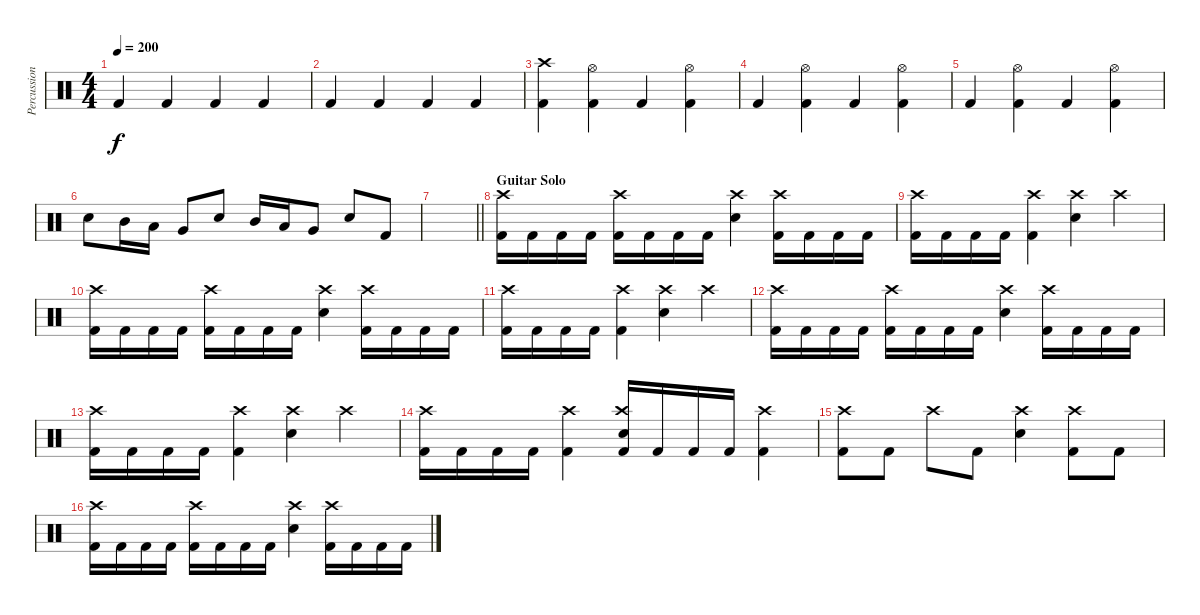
\track ("Percussion" "Percussion") {instrument percussion}
\staff {score}
\articulation defaults
\ts (4 4)
\tempo 200
\clef neutral
\ks c "Kick (hit) 2".4{dy f} "Kick (hit) 2".4 "Kick (hit) 2".4 "Kick (hit) 2".4
|
"Kick (hit) 2".4 "Kick (hit) 2".4 "Kick (hit) 2".4 "Kick (hit) 2".4 |
("Crash high (hit)" "Kick (hit) 2").4 ("Hi-Hat (open)" "Kick (hit) 2").4 "Kick (hit) 2".4 ("Hi-Hat (open)" "Kick (hit) 2").4 |
"Kick (hit) 2".4 ("Hi-Hat (open)" "Kick (hit) 2").4 "Kick (hit) 2".4 ("Hi-Hat (open)" "Kick (hit) 2").4 |
"Kick (hit) 2".4 ("Hi-Hat (open)" "Kick (hit) 2").4 "Kick (hit) 2".4 ("Hi-Hat (open)" "Kick (hit) 2").4 |
"Electric Snare (hit)".8 "Mid Tom (hit)".16 "Low Tom (hit)".16 "Very Low Tom (hit)".8 "Electric Snare (hit)".8 "Mid Tom (hit)".16 "Low Tom (hit)".16 "Very Low Tom (hit)".8 "Electric Snare (hit)".8 "Kick (hit) 2".8 |
\barLineRight lightlight
|
\section ("" "Guitar Solo")
("Crash high (hit)" "Kick (hit) 2").16 "Kick (hit) 2".16 "Kick (hit) 2".16 "Kick (hit) 2".16 ("Crash high (hit)" "Kick (hit) 2").16 "Kick (hit) 2".16 "Kick (hit) 2".16 "Kick (hit) 2".16 ("Crash high (hit)" "Electric Snare (hit)").4 ("Crash high (hit)" "Kick (hit) 2").16 "Kick (hit) 2".16 "Kick (hit) 2".16 "Kick (hit) 2".16 |
("Crash high (hit)" "Kick (hit) 2").16 "Kick (hit) 2".16 "Kick (hit) 2".16 "Kick (hit) 2".16 ("Crash high (hit)" "Kick (hit) 2").4 ("Crash high (hit)" "Electric Snare (hit)").4 "Crash high (hit)".4 |
("Crash high (hit)" "Kick (hit) 2").16 "Kick (hit) 2".16 "Kick (hit) 2".16 "Kick (hit) 2".16 ("Crash high (hit)" "Kick (hit) 2").16 "Kick (hit) 2".16 "Kick (hit) 2".16 "Kick (hit) 2".16 ("Crash high (hit)" "Electric Snare (hit)").4 ("Crash high (hit)" "Kick (hit) 2").16 "Kick (hit) 2".16 "Kick (hit) 2".16 "Kick (hit) 2".16 |
("Crash high (hit)" "Kick (hit) 2").16 "Kick (hit) 2".16 "Kick (hit) 2".16 "Kick (hit) 2".16 ("Crash high (hit)" "Kick (hit) 2").4 ("Crash high (hit)" "Electric Snare (hit)").4 "Crash high (hit)".4 |
("Crash high (hit)" "Kick (hit) 2").16 "Kick (hit) 2".16 "Kick (hit) 2".16 "Kick (hit) 2".16 ("Crash high (hit)" "Kick (hit) 2").16 "Kick (hit) 2".16 "Kick (hit) 2".16 "Kick (hit) 2".16 ("Crash high (hit)" "Electric Snare (hit)").4 ("Crash high (hit)" "Kick (hit) 2").16 "Kick (hit) 2".16 "Kick (hit) 2".16 "Kick (hit) 2".16 |
("Crash high (hit)" "Kick (hit) 2").16 "Kick (hit) 2".16 "Kick (hit) 2".16 "Kick (hit) 2".16 ("Crash high (hit)" "Kick (hit) 2").4 ("Crash high (hit)" "Electric Snare (hit)").4 "Crash high (hit)".4 |
("Crash high (hit)" "Kick (hit) 2").16 "Kick (hit) 2".16 "Kick (hit) 2".16 "Kick (hit) 2".16 ("Crash high (hit)" "Kick (hit) 2").4 ("Crash high (hit)" "Electric Snare (hit)" "Kick (hit) 2").16 "Kick (hit) 2".16 "Kick (hit) 2".16 "Kick (hit) 2".16 ("Crash high (hit)" "Kick (hit) 2").4 |
("Crash high (hit)" "Kick (hit) 2").8 "Kick (hit) 2".8 "Crash high (hit)".8 "Kick (hit) 2".8 ("Crash high (hit)" "Electric Snare (hit)").4 ("Crash high (hit)" "Kick (hit) 2").8 "Kick (hit) 2".8 |
("Crash high (hit)" "Kick (hit) 2").16 "Kick (hit) 2".16 "Kick (hit) 2".16 "Kick (hit) 2".16 ("Crash high (hit)" "Kick (hit) 2").16 "Kick (hit) 2".16 "Kick (hit) 2".16 "Kick (hit) 2".16 ("Crash high (hit)" "Electric Snare (hit)").4 ("Crash high (hit)" "Kick (hit) 2").16 "Kick (hit) 2".16 "Kick (hit) 2".16 "Kick (hit) 2".16
